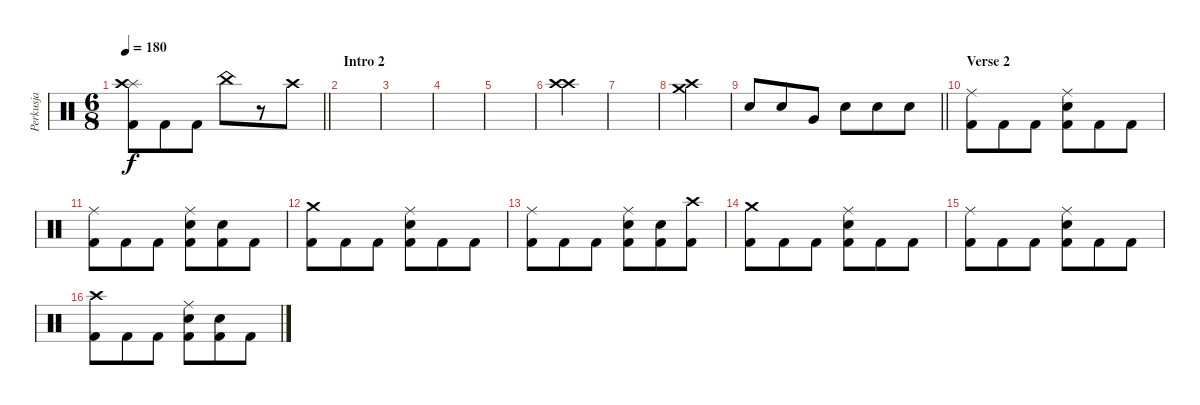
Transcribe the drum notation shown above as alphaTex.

\track ("Perkusja" "Perkusja") {instrument percussion}
\staff {score}
\articulation defaults
\ts (6 8)
\tempo 180
\clef neutral
\barLineRight lightlight
\ks c
("Splash (hit)" "Crash high (hit)" "Kick (hit) 2").8{dy f} "Kick (hit) 2".8 "Kick (hit) 2".8 "China (hit)".8 r.8 "Crash high (hit)".8 |
\section ("" "Intro 2")
|
|
|
|
("Crash high (hit)" "Crash high (hit)").4 |
|
("Crash high (hit)" "Crash medium (hit)").4 |
\barLineRight lightlight "Snare (hit) 2".8 "Snare (hit) 2".8 "Very Low Tom (hit)".8 "Snare (hit) 2".8 "Snare (hit) 2".8 "Snare (hit) 2".8
|
\section ("" "Verse 2")
("Ride (middle)" "Kick (hit) 2").8 "Kick (hit) 2".8 "Kick (hit) 2".8 ("Ride (middle)" "Snare (hit) 2" "Kick (hit) 2").8 "Kick (hit) 2".8 "Kick (hit) 2".8 |
("Ride (middle)" "Kick (hit) 2").8 "Kick (hit) 2".8 "Kick (hit) 2".8 ("Ride (middle)" "Snare (hit) 2" "Kick (hit) 2").8 ("Snare (hit) 2" "Kick (hit) 2").8 "Kick (hit) 2".8 |
("Crash medium (hit)" "Kick (hit) 2").8 "Kick (hit) 2".8 "Kick (hit) 2".8 ("Ride (middle)" "Snare (hit) 2" "Kick (hit) 2").8 "Kick (hit) 2".8 "Kick (hit) 2".8 |
("Ride (middle)" "Kick (hit) 2").8 "Kick (hit) 2".8 "Kick (hit) 2".8 ("Ride (middle)" "Snare (hit) 2" "Kick (hit) 2").8 ("Snare (hit) 2" "Kick (hit) 2").8 ("Crash high (hit)" "Kick (hit) 2").8 |
("Crash medium (hit)" "Kick (hit) 2").8 "Kick (hit) 2".8 "Kick (hit) 2".8 ("Ride (middle)" "Snare (hit) 2" "Kick (hit) 2").8 "Kick (hit) 2".8 "Kick (hit) 2".8 |
("Ride (middle)" "Kick (hit) 2").8 "Kick (hit) 2".8 "Kick (hit) 2".8 ("Ride (middle)" "Snare (hit) 2" "Kick (hit) 2").8 "Kick (hit) 2".8 "Kick (hit) 2".8 |
("Crash high (hit)" "Kick (hit) 2").8 "Kick (hit) 2".8 "Kick (hit) 2".8 ("Ride (middle)" "Snare (hit) 2" "Kick (hit) 2").8 ("Snare (hit) 2" "Kick (hit) 2").8 "Kick (hit) 2".8
